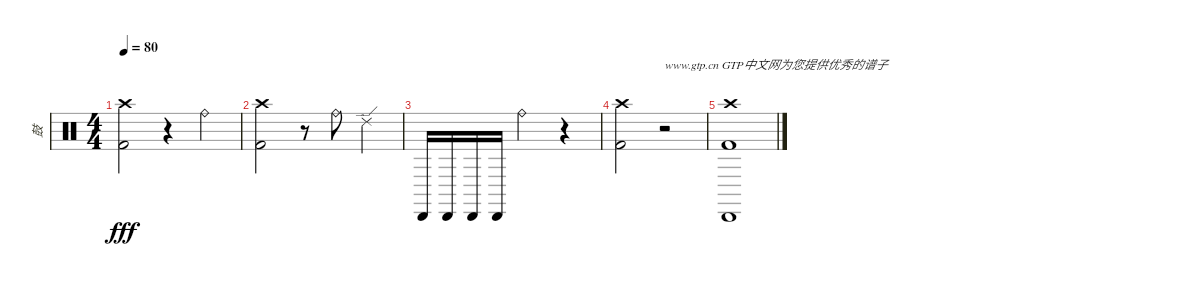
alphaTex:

\track ("鼓" "鼓") {instrument percussion}
\staff {score}
\articulation defaults
\ts (4 4)
\tempo 80
\clef neutral
\ks c
("Crash high (hit)" "Kick (hit) 2").2{dy fff} r.4 "Ride (bell)".4 |
("Crash high (hit)" "Kick (hit) 2").2 r.8 "Ride (bell)".8 "Ride (edge) 2".4 |
"Cabasa (hit)".16 "Cabasa (hit)".16 "Cabasa (hit)".16 "Cabasa (hit)".16 "Ride (bell)".2 r.4 |
("Crash high (hit)" "Kick (hit) 2").2 r.2{txt "www.gtp.cn GTP中文网为您提供优秀的谱子"} |
("Crash high (hit)" "Cabasa (hit)" "Kick (hit) 2").1
